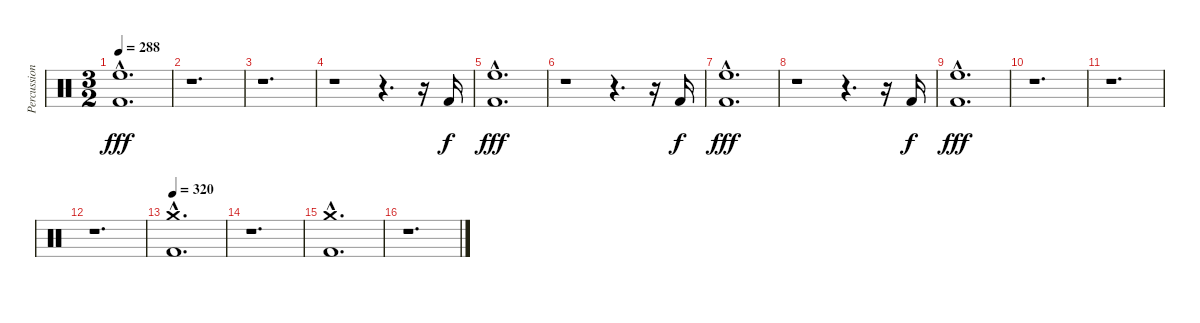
\track ("Percussion" "Percussion") {instrument percussion}
\staff {score}
\articulation defaults
\ts (3 2)
\tempo 288
\clef neutral
\ks c
("Kick (hit) 2"{hac} "High Floor Tom (hit)").1{d dy fff} |
r.1{d} |
r.1{d} |
r.1 r.4{d} r.16 "Kick (hit) 2".16{dy f} |
("Kick (hit) 2"{hac} "High Floor Tom (hit)").1{d dy fff} |
r.1 r.4{d} r.16 "Kick (hit) 2".16{dy f} |
("Kick (hit) 2"{hac} "High Floor Tom (hit)").1{d dy fff} |
r.1 r.4{d} r.16 "Kick (hit) 2".16{dy f} |
("Kick (hit) 2"{hac} "High Floor Tom (hit)").1{d dy fff} |
r.1{d} |
r.1{d} |
r.1{d} |
\tempo 320
("Kick (hit) 2"{hac} "Crash medium (hit)"{hac}).1{d} |
r.1{d} |
("Kick (hit) 2"{hac} "Crash medium (hit)"{hac}).1{d} |
r.1{d}
